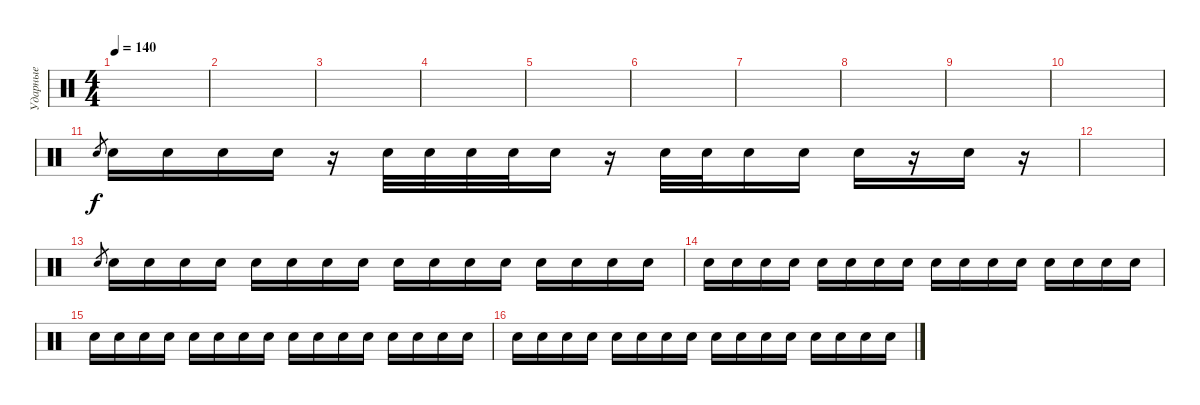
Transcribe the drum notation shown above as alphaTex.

\track ("Ударные" "Ударные") {instrument percussion}
\staff {score}
\articulation defaults
\ts (4 4)
\tempo 140
\clef neutral
\ks c
|
|
|
|
|
|
|
|
|
|
"Electric Snare (hit)".8{gr} "Electric Snare (hit)".16 "Electric Snare (hit)".16 "Electric Snare (hit)".16 "Electric Snare (hit)".16 r.16 "Electric Snare (hit)".32 "Electric Snare (hit)".32 "Electric Snare (hit)".32 "Electric Snare (hit)".32 "Electric Snare (hit)".16 r.16 "Electric Snare (hit)".32 "Electric Snare (hit)".32 "Electric Snare (hit)".16 "Electric Snare (hit)".16 "Electric Snare (hit)".16 r.16 "Electric Snare (hit)".16 r.16 |
|
"Electric Snare (hit)".8{gr} "Electric Snare (hit)".16 "Electric Snare (hit)".16 "Electric Snare (hit)".16 "Electric Snare (hit)".16 "Electric Snare (hit)".16 "Electric Snare (hit)".16 "Electric Snare (hit)".16 "Electric Snare (hit)".16 "Electric Snare (hit)".16 "Electric Snare (hit)".16 "Electric Snare (hit)".16 "Electric Snare (hit)".16 "Electric Snare (hit)".16 "Electric Snare (hit)".16 "Electric Snare (hit)".16 "Electric Snare (hit)".16 |
"Electric Snare (hit)".16 "Electric Snare (hit)".16 "Electric Snare (hit)".16 "Electric Snare (hit)".16 "Electric Snare (hit)".16 "Electric Snare (hit)".16 "Electric Snare (hit)".16 "Electric Snare (hit)".16 "Electric Snare (hit)".16 "Electric Snare (hit)".16 "Electric Snare (hit)".16 "Electric Snare (hit)".16 "Electric Snare (hit)".16 "Electric Snare (hit)".16 "Electric Snare (hit)".16 "Electric Snare (hit)".16 |
"Electric Snare (hit)".16 "Electric Snare (hit)".16 "Electric Snare (hit)".16 "Electric Snare (hit)".16 "Electric Snare (hit)".16 "Electric Snare (hit)".16 "Electric Snare (hit)".16 "Electric Snare (hit)".16 "Electric Snare (hit)".16 "Electric Snare (hit)".16 "Electric Snare (hit)".16 "Electric Snare (hit)".16 "Electric Snare (hit)".16 "Electric Snare (hit)".16 "Electric Snare (hit)".16 "Electric Snare (hit)".16 |
"Electric Snare (hit)".16 "Electric Snare (hit)".16 "Electric Snare (hit)".16 "Electric Snare (hit)".16 "Electric Snare (hit)".16 "Electric Snare (hit)".16 "Electric Snare (hit)".16 "Electric Snare (hit)".16 "Electric Snare (hit)".16 "Electric Snare (hit)".16 "Electric Snare (hit)".16 "Electric Snare (hit)".16 "Electric Snare (hit)".16 "Electric Snare (hit)".16 "Electric Snare (hit)".16 "Electric Snare (hit)".16
